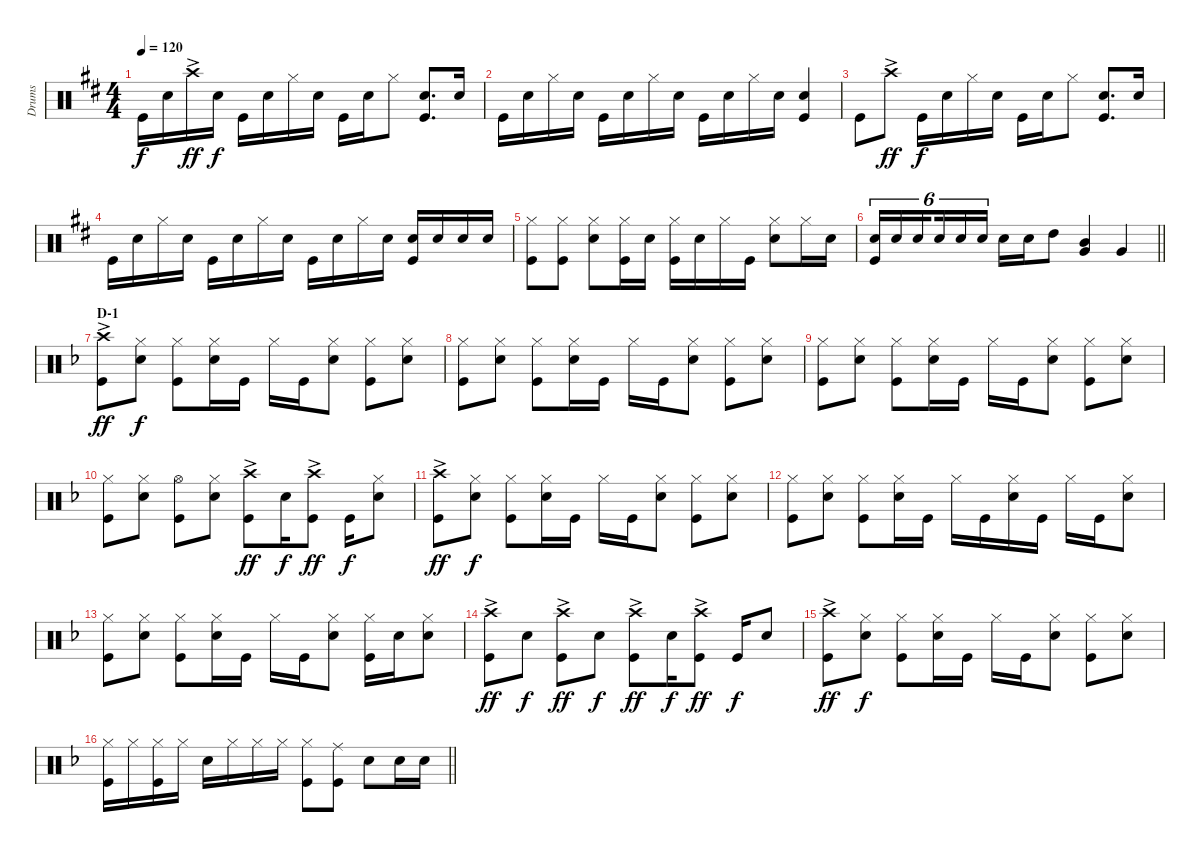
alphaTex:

\track ("Drums" "Drums") {instrument percussion}
\staff {score}
\articulation defaults
\ts (4 4)
\tempo 120
\clef neutral
\ks d "Kick (hit)".16{dy f} "Snare (hit) 2".16 "Crash high (hit)"{ac}.16{dy ff} "Snare (hit) 2".16{dy f} "Kick (hit)".16 "Snare (hit) 2".16 "Hi-Hat (closed)".16 "Snare (hit) 2".16 "Kick (hit)".16 "Snare (hit) 2".16 "Hi-Hat (closed)".8
("Kick (hit)" "Snare (hit) 2").8{d} "Snare (hit) 2".16 |
"Kick (hit)".16 "Snare (hit) 2".16 "Hi-Hat (closed)".16 "Snare (hit) 2".16 "Kick (hit)".16 "Snare (hit) 2".16 "Hi-Hat (closed)".16 "Snare (hit) 2".16 "Kick (hit)".16 "Snare (hit) 2".16 "Hi-Hat (closed)".16 "Snare (hit) 2".16 ("Kick (hit)" "Snare (hit) 2").4 |
"Kick (hit)".8 "Crash high (hit)"{ac}.8{dy ff} "Kick (hit)".16{dy f} "Snare (hit) 2".16 "Hi-Hat (closed)".16 "Snare (hit) 2".16 "Kick (hit)".16 "Snare (hit) 2".16 "Hi-Hat (closed)".8 ("Kick (hit)" "Snare (hit) 2").8{d} "Snare (hit) 2".16 |
"Kick (hit)".16 "Snare (hit) 2".16 "Hi-Hat (closed)".16 "Snare (hit) 2".16 "Kick (hit)".16 "Snare (hit) 2".16 "Hi-Hat (closed)".16 "Snare (hit) 2".16 "Kick (hit)".16 "Snare (hit) 2".16 "Hi-Hat (closed)".16 "Snare (hit) 2".16 ("Kick (hit)" "Snare (hit) 2").16 "Snare (hit) 2".16 "Snare (hit) 2".16 "Snare (hit) 2".16 |
("Hi-Hat (closed)" "Kick (hit)").8 ("Hi-Hat (closed)" "Kick (hit)").8 ("Hi-Hat (closed)" "Snare (hit) 2").8 ("Hi-Hat (closed)" "Kick (hit)").16 "Snare (hit) 2".16 ("Hi-Hat (closed)" "Kick (hit)").16 "Snare (hit) 2".16 "Hi-Hat (closed)".16 "Kick (hit)".16 ("Hi-Hat (closed)" "Snare (hit) 2").8 "Hi-Hat (closed)".16 "Snare (hit) 2".16 |
\barLineRight lightlight
("Kick (hit)" "Snare (hit) 2").16{tu (6 4)} "Snare (hit) 2".16{tu (6 4)} "Snare (hit) 2".16{tu (6 4) beam splitsecondary} "Snare (hit) 2".16{tu (6 4)} "Snare (hit) 2".16{tu (6 4)} "Snare (hit) 2".16{tu (6 4)} "Snare (hit) 2".16 "Snare (hit) 2".16 "High Tom (hit)".8 ("Very Low Tom (hit)" "Mid Tom (hit)").4 "Very Low Tom (hit)".4 |
\section ("" "D-1")
\ks f
("Crash high (hit)"{ac} "Kick (hit)").8{dy ff} ("Hi-Hat (closed)" "Snare (hit) 2").8{dy f} ("Hi-Hat (closed)" "Kick (hit)").8 ("Hi-Hat (closed)" "Snare (hit) 2").16 "Kick (hit)".16 "Hi-Hat (closed)".16 "Kick (hit)".16 ("Hi-Hat (closed)" "Snare (hit) 2").8 ("Hi-Hat (closed)" "Kick (hit)").8 ("Hi-Hat (closed)" "Snare (hit) 2").8 |
("Hi-Hat (closed)" "Kick (hit)").8 ("Hi-Hat (closed)" "Snare (hit) 2").8 ("Hi-Hat (closed)" "Kick (hit)").8 ("Hi-Hat (closed)" "Snare (hit) 2").16 "Kick (hit)".16 "Hi-Hat (closed)".16 "Kick (hit)".16 ("Snare (hit) 2" "Hi-Hat (closed)").8 ("Hi-Hat (closed)" "Kick (hit)").8 ("Hi-Hat (closed)" "Snare (hit) 2").8 |
("Hi-Hat (closed)" "Kick (hit)").8 ("Hi-Hat (closed)" "Snare (hit) 2").8 ("Hi-Hat (closed)" "Kick (hit)").8 ("Hi-Hat (closed)" "Snare (hit) 2").16 "Kick (hit)".16 "Hi-Hat (closed)".16 "Kick (hit)".16 ("Snare (hit) 2" "Hi-Hat (closed)").8 ("Hi-Hat (closed)" "Kick (hit)").8 ("Hi-Hat (closed)" "Snare (hit) 2").8 |
("Hi-Hat (closed)" "Kick (hit)").8 ("Hi-Hat (closed)" "Snare (hit) 2").8 ("Hi-Hat (open)" "Kick (hit)").8 ("Hi-Hat (closed)" "Snare (hit) 2").8 ("Crash high (hit)"{ac} "Kick (hit)").8{dy ff} "Snare (hit) 2".16{dy f} ("Crash high (hit)"{ac} "Kick (hit)").8{dy ff} "Kick (hit)".16{dy f} ("Hi-Hat (closed)" "Snare (hit) 2").8 |
("Crash high (hit)"{ac} "Kick (hit)").8{dy ff} ("Hi-Hat (closed)" "Snare (hit) 2").8{dy f} ("Hi-Hat (closed)" "Kick (hit)").8 ("Hi-Hat (closed)" "Snare (hit) 2").16 "Kick (hit)".16 "Hi-Hat (closed)".16 "Kick (hit)".16 ("Hi-Hat (closed)" "Snare (hit) 2").8 ("Hi-Hat (closed)" "Kick (hit)").8 ("Hi-Hat (closed)" "Snare (hit) 2").8 |
("Hi-Hat (closed)" "Kick (hit)").8 ("Hi-Hat (closed)" "Snare (hit) 2").8 ("Hi-Hat (closed)" "Kick (hit)").8 ("Hi-Hat (closed)" "Snare (hit) 2").16 "Kick (hit)".16 "Hi-Hat (closed)".16 "Kick (hit)".16 ("Hi-Hat (closed)" "Snare (hit) 2").16 "Kick (hit)".16 "Hi-Hat (closed)".16 "Kick (hit)".16 ("Hi-Hat (closed)" "Snare (hit) 2").8 |
("Hi-Hat (closed)" "Kick (hit)").8 ("Hi-Hat (closed)" "Snare (hit) 2").8 ("Hi-Hat (closed)" "Kick (hit)").8 ("Hi-Hat (closed)" "Snare (hit) 2").16 "Kick (hit)".16 "Hi-Hat (closed)".16 "Kick (hit)".16 ("Hi-Hat (closed)" "Snare (hit) 2").8 ("Hi-Hat (closed)" "Kick (hit)").16 "Snare (hit) 2".16 ("Snare (hit) 2" "Hi-Hat (closed)").8 |
("Crash high (hit)"{ac} "Kick (hit)").8{dy ff} "Snare (hit) 2".8{dy f} ("Crash high (hit)"{ac} "Kick (hit)").8{dy ff} "Snare (hit) 2".8{dy f} ("Crash high (hit)"{ac} "Kick (hit)").8{dy ff} "Snare (hit) 2".16{dy f} ("Kick (hit)" "Crash high (hit)"{ac}).8{dy ff} "Kick (hit)".16{dy f} "Snare (hit) 2".8 |
("Crash high (hit)"{ac} "Kick (hit)").8{dy ff} ("Hi-Hat (closed)" "Snare (hit) 2").8{dy f} ("Hi-Hat (closed)" "Kick (hit)").8 ("Hi-Hat (closed)" "Snare (hit) 2").16 "Kick (hit)".16 "Hi-Hat (closed)".16 "Kick (hit)".16 ("Hi-Hat (closed)" "Snare (hit) 2").8 ("Hi-Hat (closed)" "Kick (hit)").8 ("Hi-Hat (closed)" "Snare (hit) 2").8 |
\barLineRight lightlight
("Hi-Hat (closed)" "Kick (hit)").16 "Hi-Hat (closed)".16 ("Hi-Hat (closed)" "Kick (hit)").16 "Hi-Hat (closed)".16 "Snare (hit) 2".16 "Hi-Hat (closed)".16 "Hi-Hat (closed)".16 "Hi-Hat (closed)".16 ("Hi-Hat (closed)" "Kick (hit)").8 ("Ride (middle)" "Kick (hit)").8 "Snare (hit) 2".8 "Snare (hit) 2".16 "Snare (hit) 2".16
